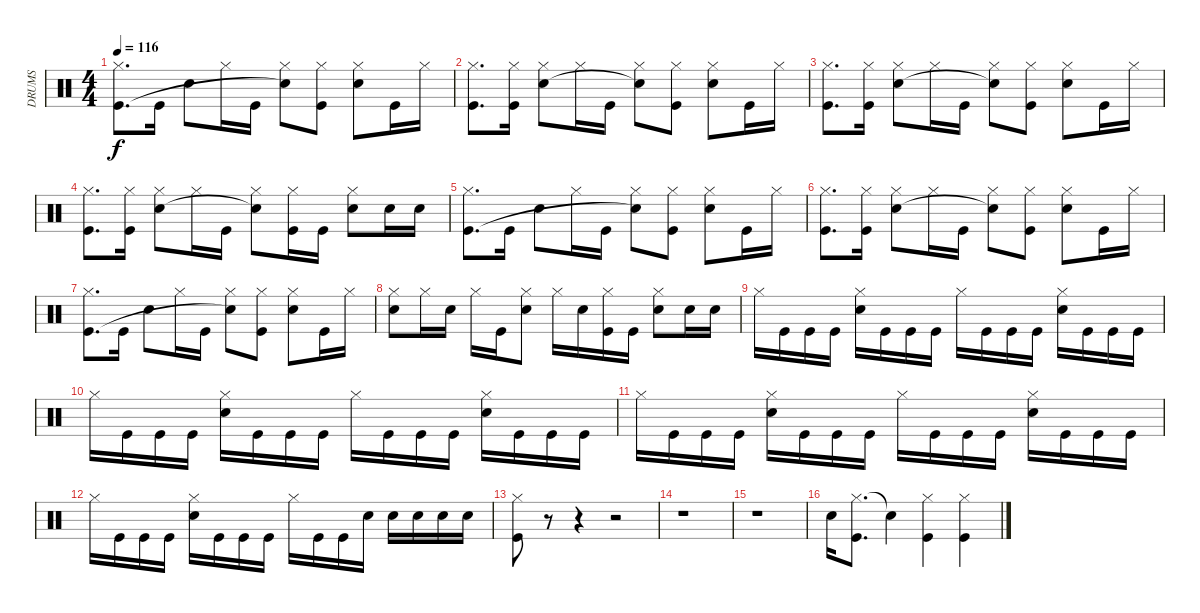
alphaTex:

\track ("DRUMS" "DRUMS") {instrument percussion}
\staff {score}
\articulation defaults
\ts (4 4)
\tempo 116
\clef neutral
\ks c
("Hi-Hat (closed)" "Kick (hit)").8{d dy f} "Kick (hit)".16 "Snare (hit) 2".8 "Hi-Hat (closed)".16 "Kick (hit)".16 ("Hi-Hat (closed)" "Snare (hit)"{t}).8 ("Hi-Hat (closed)" "Kick (hit)").8 ("Hi-Hat (closed)" "Snare (hit) 2").8 "Kick (hit)".16 "Hi-Hat (closed)".16 |
("Hi-Hat (closed)" "Kick (hit)").8{d} ("Hi-Hat (closed)" "Kick (hit)").16 ("Hi-Hat (closed)" "Snare (hit) 2").8 "Hi-Hat (closed)".16 "Kick (hit)".16 ("Hi-Hat (closed)" "Snare (hit)"{t}).8 ("Hi-Hat (closed)" "Kick (hit)").8 ("Hi-Hat (closed)" "Snare (hit) 2").8 "Kick (hit)".16 "Hi-Hat (closed)".16 |
("Hi-Hat (closed)" "Kick (hit)").8{d} ("Hi-Hat (closed)" "Kick (hit)").16 ("Hi-Hat (closed)" "Snare (hit) 2").8 "Hi-Hat (closed)".16 "Kick (hit)".16 ("Hi-Hat (closed)" "Snare (hit)"{t}).8 ("Hi-Hat (closed)" "Kick (hit)").8 ("Hi-Hat (closed)" "Snare (hit) 2").8 "Kick (hit)".16 "Hi-Hat (closed)".16 |
("Hi-Hat (closed)" "Kick (hit)").8{d} ("Hi-Hat (closed)" "Kick (hit)").16 ("Hi-Hat (closed)" "Snare (hit) 2").8 "Hi-Hat (closed)".16 "Kick (hit)".16 ("Hi-Hat (closed)" "Snare (hit)"{t}).8 ("Hi-Hat (closed)" "Kick (hit)").16 "Kick (hit)".16 ("Hi-Hat (closed)" "Snare (hit) 2").8 "Snare (hit) 2".16 "Snare (hit) 2".16 |
("Hi-Hat (closed)" "Kick (hit)").8{d} "Kick (hit)".16 "Snare (hit) 2".8 "Hi-Hat (closed)".16 "Kick (hit)".16 ("Hi-Hat (closed)" "Snare (hit)"{t}).8 ("Hi-Hat (closed)" "Kick (hit)").8 ("Hi-Hat (closed)" "Snare (hit) 2").8 "Kick (hit)".16 "Hi-Hat (closed)".16 |
("Hi-Hat (closed)" "Kick (hit)").8{d} ("Hi-Hat (closed)" "Kick (hit)").16 ("Hi-Hat (closed)" "Snare (hit) 2").8 "Hi-Hat (closed)".16 "Kick (hit)".16 ("Hi-Hat (closed)" "Snare (hit)"{t}).8 ("Hi-Hat (closed)" "Kick (hit)").8 ("Hi-Hat (closed)" "Snare (hit) 2").8 "Kick (hit)".16 "Hi-Hat (closed)".16 |
("Hi-Hat (closed)" "Kick (hit)").8{d} "Kick (hit)".16 "Snare (hit) 2".8 "Hi-Hat (closed)".16 "Kick (hit)".16 ("Hi-Hat (closed)" "Snare (hit)"{t}).8 ("Hi-Hat (closed)" "Kick (hit)").8 ("Hi-Hat (closed)" "Snare (hit) 2").8 "Kick (hit)".16 "Hi-Hat (closed)".16 |
("Hi-Hat (closed)" "Snare (hit) 2").8 "Hi-Hat (closed)".16 "Snare (hit) 2".16 "Hi-Hat (closed)".16 "Kick (hit)".16 ("Hi-Hat (closed)" "Snare (hit) 2").8 "Hi-Hat (closed)".16 "Snare (hit) 2".16 ("Hi-Hat (closed)" "Kick (hit)").16 "Kick (hit)".16 ("Hi-Hat (closed)" "Snare (hit) 2").8 "Snare (hit) 2".16 "Snare (hit) 2".16 |
"Hi-Hat (closed)".16 "Kick (hit)".16 "Kick (hit)".16 "Kick (hit)".16 ("Hi-Hat (closed)" "Snare (hit) 2").16 "Kick (hit)".16 "Kick (hit)".16 "Kick (hit)".16 "Hi-Hat (closed)".16 "Kick (hit)".16 "Kick (hit)".16 "Kick (hit)".16 ("Hi-Hat (closed)" "Snare (hit) 2").16 "Kick (hit)".16 "Kick (hit)".16 "Kick (hit)".16 |
"Hi-Hat (closed)".16 "Kick (hit)".16 "Kick (hit)".16 "Kick (hit)".16 ("Hi-Hat (closed)" "Snare (hit) 2").16 "Kick (hit)".16 "Kick (hit)".16 "Kick (hit)".16 "Hi-Hat (closed)".16 "Kick (hit)".16 "Kick (hit)".16 "Kick (hit)".16 ("Hi-Hat (closed)" "Snare (hit) 2").16 "Kick (hit)".16 "Kick (hit)".16 "Kick (hit)".16 |
"Hi-Hat (closed)".16 "Kick (hit)".16 "Kick (hit)".16 "Kick (hit)".16 ("Hi-Hat (closed)" "Snare (hit) 2").16 "Kick (hit)".16 "Kick (hit)".16 "Kick (hit)".16 "Hi-Hat (closed)".16 "Kick (hit)".16 "Kick (hit)".16 "Kick (hit)".16 ("Hi-Hat (closed)" "Snare (hit) 2").16 "Kick (hit)".16 "Kick (hit)".16 "Kick (hit)".16 |
"Hi-Hat (closed)".16 "Kick (hit)".16 "Kick (hit)".16 "Kick (hit)".16 ("Hi-Hat (closed)" "Snare (hit) 2").16 "Kick (hit)".16 "Kick (hit)".16 "Kick (hit)".16 "Hi-Hat (closed)".16 "Kick (hit)".16 "Kick (hit)".16 "Snare (hit) 2".16 "Snare (hit) 2".16 "Snare (hit) 2".16 "Snare (hit) 2".16 "Snare (hit) 2".16 |
("Hi-Hat (closed)" "Kick (hit)").8 r.8 r.4 r.2 |
r.1 |
r.1 |
"Snare (hit) 2".16 ("Hi-Hat (closed)" "Kick (hit)").8{d} "Snare (hit)"{t}.4 ("Hi-Hat (closed)" "Kick (hit)").4 ("Hi-Hat (closed)" "Kick (hit)").4
